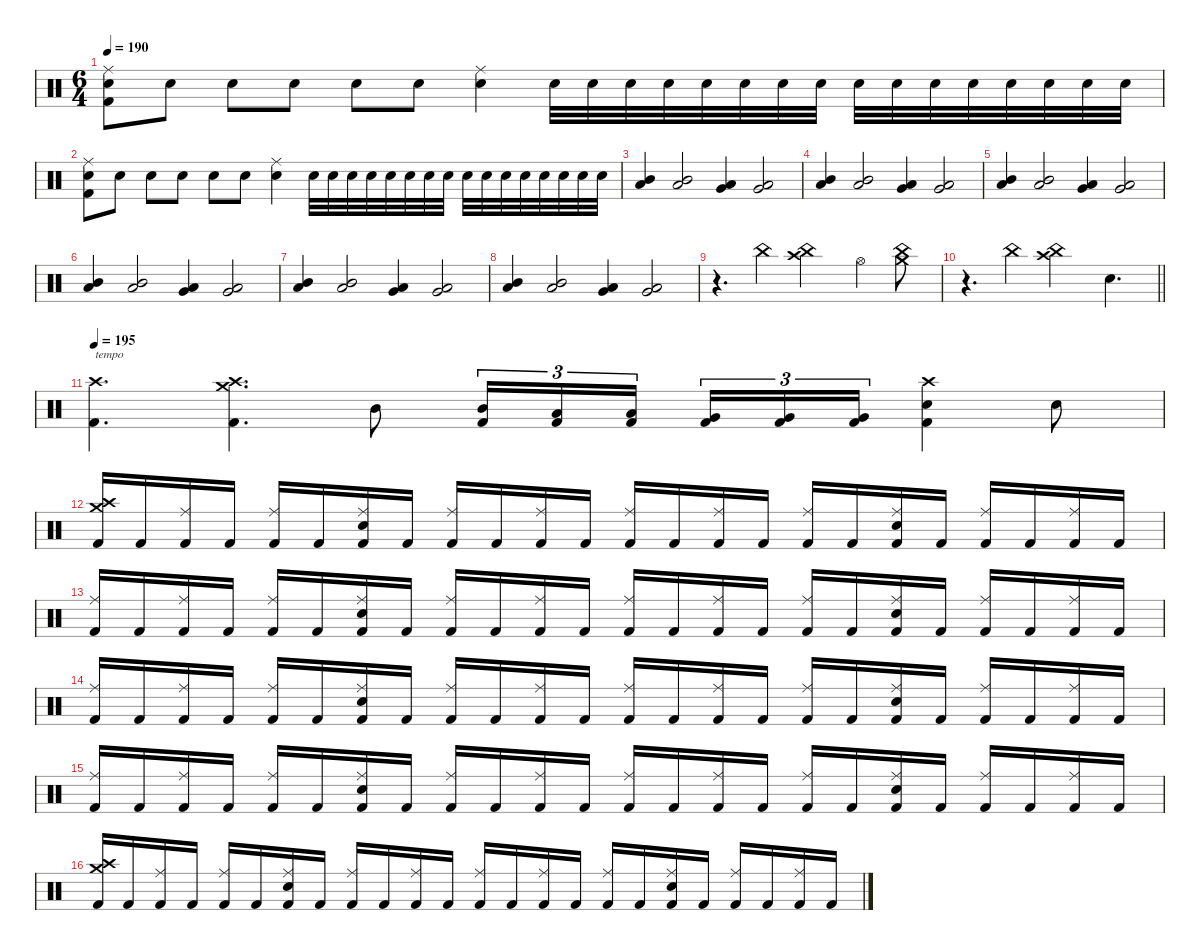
\defaultSystemsLayout 4
\hideDynamics
\bracketExtendMode nobrackets
\singleTrackTrackNamePolicy hidden
\multiTrackTrackNamePolicy hidden
\firstSystemTrackNameMode fullname
\firstSystemTrackNameOrientation horizontal
\otherSystemsTrackNameOrientation horizontal
\track ("Drums" "drm.") {instrument percussion}
\staff {score}
\articulation defaults
\ts (6 4)
\tempo 190
\clef neutral
\ks c
("Ride (middle)" "Snare (hit) 2" "Kick (hit) 2").8{dy f beam Down} "Snare (hit) 2".8{dy mp beam Down} "Snare (hit) 2".8{beam Down} "Snare (hit) 2".8{beam Down} "Snare (hit) 2".8{dy p beam Down} "Snare (hit) 2".8{beam Down} ("Ride (middle)" "Snare (hit) 2").4{dy mf beam Down} "Snare (hit) 2".32{dy p beam Down} "Snare (hit) 2".32{beam Down} "Snare (hit) 2".32{beam Down} "Snare (hit) 2".32{beam Down} "Snare (hit) 2".32{beam Down} "Snare (hit) 2".32{beam Down} "Snare (hit) 2".32{beam Down} "Snare (hit) 2".32{dy pp beam Down} "Snare (hit) 2".32{beam Down} "Snare (hit) 2".32{beam Down} "Snare (hit) 2".32{dy p beam Down} "Snare (hit) 2".32{beam Down} "Snare (hit) 2".32{beam Down} "Snare (hit) 2".32{beam Down} "Snare (hit) 2".32{beam Down} "Snare (hit) 2".32{beam Down} |
("Ride (middle)" "Snare (hit) 2" "Kick (hit) 2").8{dy f beam Down} "Snare (hit) 2".8{dy mp beam Down} "Snare (hit) 2".8{beam Down} "Snare (hit) 2".8{beam Down} "Snare (hit) 2".8{dy p beam Down} "Snare (hit) 2".8{beam Down} ("Ride (middle)" "Snare (hit) 2").4{dy mf beam Down} "Snare (hit) 2".32{dy p beam Down} "Snare (hit) 2".32{beam Down} "Snare (hit) 2".32{beam Down} "Snare (hit) 2".32{beam Down} "Snare (hit) 2".32{beam Down} "Snare (hit) 2".32{beam Down} "Snare (hit) 2".32{beam Down} "Snare (hit) 2".32{dy pp beam Down} "Snare (hit) 2".32{beam Down} "Snare (hit) 2".32{beam Down} "Snare (hit) 2".32{dy p beam Down} "Snare (hit) 2".32{beam Down} "Snare (hit) 2".32{beam Down} "Snare (hit) 2".32{beam Down} "Snare (hit) 2".32{beam Down} "Snare (hit) 2".32{beam Down} |
("Mid Tom (hit)" "Low Tom (hit)").4{dy mf beam Up} ("Mid Tom (hit)" "Low Tom (hit)").2{beam Up} ("Low Tom (hit)" "Very Low Tom (hit)").4{beam Up} ("Low Tom (hit)" "Very Low Tom (hit)").2{beam Up} |
("Mid Tom (hit)" "Low Tom (hit)").4{beam Up} ("Mid Tom (hit)" "Low Tom (hit)").2{beam Up} ("Low Tom (hit)" "Very Low Tom (hit)").4{beam Up} ("Low Tom (hit)" "Very Low Tom (hit)").2{beam Up} |
("Mid Tom (hit)" "Low Tom (hit)").4{beam Up} ("Mid Tom (hit)" "Low Tom (hit)").2{beam Up} ("Low Tom (hit)" "Very Low Tom (hit)").4{beam Up} ("Low Tom (hit)" "Very Low Tom (hit)").2{beam Up} |
("Mid Tom (hit)" "Low Tom (hit)").4{beam Up} ("Mid Tom (hit)" "Low Tom (hit)").2{beam Up} ("Low Tom (hit)" "Very Low Tom (hit)").4{beam Up} ("Low Tom (hit)" "Very Low Tom (hit)").2{beam Up} |
("Mid Tom (hit)" "Low Tom (hit)").4{beam Up} ("Mid Tom (hit)" "Low Tom (hit)").2{beam Up} ("Low Tom (hit)" "Very Low Tom (hit)").4{beam Up} ("Low Tom (hit)" "Very Low Tom (hit)").2{beam Up} |
("Mid Tom (hit)" "Low Tom (hit)").4{beam Up} ("Mid Tom (hit)" "Low Tom (hit)").2{beam Up} ("Low Tom (hit)" "Very Low Tom (hit)").4{beam Up} ("Low Tom (hit)" "Very Low Tom (hit)").2{beam Up} |
r.4{d beam Down} "China (hit)".4{beam Down} ("China (hit)" "Crash high (hit)").2{beam Down} "Hi-Hat (open)".4{dy mp beam Down} ("China (hit)" "Crash medium (hit)").8{dy mf beam Down} |
\barLineRight lightlight
r.4{d beam Down} "China (hit)".4{beam Down} ("China (hit)" "Crash high (hit)").2{dy mp beam Down} "Snare (hit) 2".4{d dy fff beam Down} |
\tempo 195
("Crash high (hit)" "Kick (hit) 2").4{d txt "tempo" dy f beam Down} ("Crash high (hit)" "Crash medium (hit)" "Kick (hit) 2").4{d beam Down} "Mid Tom (hit)".8{beam Down} ("Mid Tom (hit)" "Kick (hit) 2").16{tu (3 2) beam Up} ("Low Tom (hit)" "Kick (hit) 2").16{tu (3 2) beam Up} ("Low Tom (hit)" "Kick (hit) 2").16{tu (3 2) beam Up} ("Very Low Tom (hit)" "Kick (hit) 2").16{tu (3 2) beam Up} ("Very Low Tom (hit)" "Kick (hit) 2").16{tu (3 2) beam Up} ("Very Low Tom (hit)" "Kick (hit) 2").16{tu (3 2) beam Up} ("Crash high (hit)" "Snare (hit) 2" "Kick (hit) 2").4{beam Down} "Snare (hit) 2".8{beam Down} |
("Crash high (hit)" "Crash medium (hit)" "Kick (hit) 2").16{beam Up} "Kick (hit) 2".16{beam Up} ("Ride (middle)" "Kick (hit) 2").16{dy mf beam Up} "Kick (hit) 2".16{dy f beam Up} ("Ride (middle)" "Kick (hit) 2").16{dy mf beam Up} "Kick (hit) 2".16{dy f beam Up} ("Ride (middle)" "Snare (hit) 2" "Kick (hit) 2").16{dy mf beam Up} "Kick (hit) 2".16{dy f beam Up} ("Ride (middle)" "Kick (hit) 2").16{dy mf beam Up} "Kick (hit) 2".16{dy f beam Up} ("Ride (middle)" "Kick (hit) 2").16{dy mf beam Up} "Kick (hit) 2".16{dy f beam Up} ("Ride (middle)" "Kick (hit) 2").16{dy mf beam Up} "Kick (hit) 2".16{dy f beam Up} ("Ride (middle)" "Kick (hit) 2").16{dy mf beam Up} "Kick (hit) 2".16{dy f beam Up} ("Ride (middle)" "Kick (hit) 2").16{dy mf beam Up} "Kick (hit) 2".16{dy f beam Up} ("Ride (middle)" "Snare (hit) 2" "Kick (hit) 2").16{dy mf beam Up} "Kick (hit) 2".16{dy f beam Up} ("Ride (middle)" "Kick (hit) 2").16{dy mf beam Up} "Kick (hit) 2".16{dy f beam Up} ("Ride (middle)" "Kick (hit) 2").16{dy mf beam Up} "Kick (hit) 2".16{dy f beam Up} |
("Ride (middle)" "Kick (hit) 2").16{dy mf beam Up} "Kick (hit) 2".16{dy f beam Up} ("Ride (middle)" "Kick (hit) 2").16{dy mf beam Up} "Kick (hit) 2".16{dy f beam Up} ("Ride (middle)" "Kick (hit) 2").16{dy mf beam Up} "Kick (hit) 2".16{dy f beam Up} ("Ride (middle)" "Snare (hit) 2" "Kick (hit) 2").16{dy mf beam Up} "Kick (hit) 2".16{dy f beam Up} ("Ride (middle)" "Kick (hit) 2").16{dy mf beam Up} "Kick (hit) 2".16{dy f beam Up} ("Ride (middle)" "Kick (hit) 2").16{dy mf beam Up} "Kick (hit) 2".16{dy f beam Up} ("Ride (middle)" "Kick (hit) 2").16{dy mf beam Up} "Kick (hit) 2".16{dy f beam Up} ("Ride (middle)" "Kick (hit) 2").16{dy mf beam Up} "Kick (hit) 2".16{dy f beam Up} ("Ride (middle)" "Kick (hit) 2").16{dy mf beam Up} "Kick (hit) 2".16{dy f beam Up} ("Ride (middle)" "Snare (hit) 2" "Kick (hit) 2").16{dy mf beam Up} "Kick (hit) 2".16{dy f beam Up} ("Ride (middle)" "Kick (hit) 2").16{dy mf beam Up} "Kick (hit) 2".16{dy f beam Up} ("Ride (middle)" "Kick (hit) 2").16{dy mf beam Up} "Kick (hit) 2".16{dy f beam Up} |
("Ride (middle)" "Kick (hit) 2").16{dy mf beam Up} "Kick (hit) 2".16{dy f beam Up} ("Ride (middle)" "Kick (hit) 2").16{dy mf beam Up} "Kick (hit) 2".16{dy f beam Up} ("Ride (middle)" "Kick (hit) 2").16{dy mf beam Up} "Kick (hit) 2".16{dy f beam Up} ("Ride (middle)" "Snare (hit) 2" "Kick (hit) 2").16{dy mf beam Up} "Kick (hit) 2".16{dy f beam Up} ("Ride (middle)" "Kick (hit) 2").16{dy mf beam Up} "Kick (hit) 2".16{dy f beam Up} ("Ride (middle)" "Kick (hit) 2").16{dy mf beam Up} "Kick (hit) 2".16{dy f beam Up} ("Ride (middle)" "Kick (hit) 2").16{dy mf beam Up} "Kick (hit) 2".16{dy f beam Up} ("Ride (middle)" "Kick (hit) 2").16{dy mf beam Up} "Kick (hit) 2".16{dy f beam Up} ("Ride (middle)" "Kick (hit) 2").16{dy mf beam Up} "Kick (hit) 2".16{dy f beam Up} ("Ride (middle)" "Snare (hit) 2" "Kick (hit) 2").16{dy mf beam Up} "Kick (hit) 2".16{dy f beam Up} ("Ride (middle)" "Kick (hit) 2").16{dy mf beam Up} "Kick (hit) 2".16{dy f beam Up} ("Ride (middle)" "Kick (hit) 2").16{dy mf beam Up} "Kick (hit) 2".16{dy f beam Up} |
("Ride (middle)" "Kick (hit) 2").16{dy mf beam Up} "Kick (hit) 2".16{dy f beam Up} ("Ride (middle)" "Kick (hit) 2").16{dy mf beam Up} "Kick (hit) 2".16{dy f beam Up} ("Ride (middle)" "Kick (hit) 2").16{dy mf beam Up} "Kick (hit) 2".16{dy f beam Up} ("Ride (middle)" "Snare (hit) 2" "Kick (hit) 2").16{dy mf beam Up} "Kick (hit) 2".16{dy f beam Up} ("Ride (middle)" "Kick (hit) 2").16{dy mf beam Up} "Kick (hit) 2".16{dy f beam Up} ("Ride (middle)" "Kick (hit) 2").16{dy mf beam Up} "Kick (hit) 2".16{dy f beam Up} ("Ride (middle)" "Kick (hit) 2").16{dy mf beam Up} "Kick (hit) 2".16{dy f beam Up} ("Ride (middle)" "Kick (hit) 2").16{dy mf beam Up} "Kick (hit) 2".16{dy f beam Up} ("Ride (middle)" "Kick (hit) 2").16{dy mf beam Up} "Kick (hit) 2".16{dy f beam Up} ("Ride (middle)" "Snare (hit) 2" "Kick (hit) 2").16{dy mf beam Up} "Kick (hit) 2".16{dy f beam Up} ("Ride (middle)" "Kick (hit) 2").16{dy mf beam Up} "Kick (hit) 2".16{dy f beam Up} ("Ride (middle)" "Kick (hit) 2").16{dy mf beam Up} "Kick (hit) 2".16{dy f beam Up} |
("Crash high (hit)" "Crash medium (hit)" "Kick (hit) 2").16{beam Up} "Kick (hit) 2".16{beam Up} ("Ride (middle)" "Kick (hit) 2").16{dy mf beam Up} "Kick (hit) 2".16{dy f beam Up} ("Ride (middle)" "Kick (hit) 2").16{dy mf beam Up} "Kick (hit) 2".16{dy f beam Up} ("Ride (middle)" "Snare (hit) 2" "Kick (hit) 2").16{dy mf beam Up} "Kick (hit) 2".16{dy f beam Up} ("Ride (middle)" "Kick (hit) 2").16{dy mf beam Up} "Kick (hit) 2".16{dy f beam Up} ("Ride (middle)" "Kick (hit) 2").16{dy mf beam Up} "Kick (hit) 2".16{dy f beam Up} ("Ride (middle)" "Kick (hit) 2").16{dy mf beam Up} "Kick (hit) 2".16{dy f beam Up} ("Ride (middle)" "Kick (hit) 2").16{dy mf beam Up} "Kick (hit) 2".16{dy f beam Up} ("Ride (middle)" "Kick (hit) 2").16{dy mf beam Up} "Kick (hit) 2".16{dy f beam Up} ("Ride (middle)" "Snare (hit) 2" "Kick (hit) 2").16{dy mf beam Up} "Kick (hit) 2".16{dy f beam Up} ("Ride (middle)" "Kick (hit) 2").16{dy mf beam Up} "Kick (hit) 2".16{dy f beam Up} ("Ride (middle)" "Kick (hit) 2").16{dy mf beam Up} "Kick (hit) 2".16{dy f beam Up}
